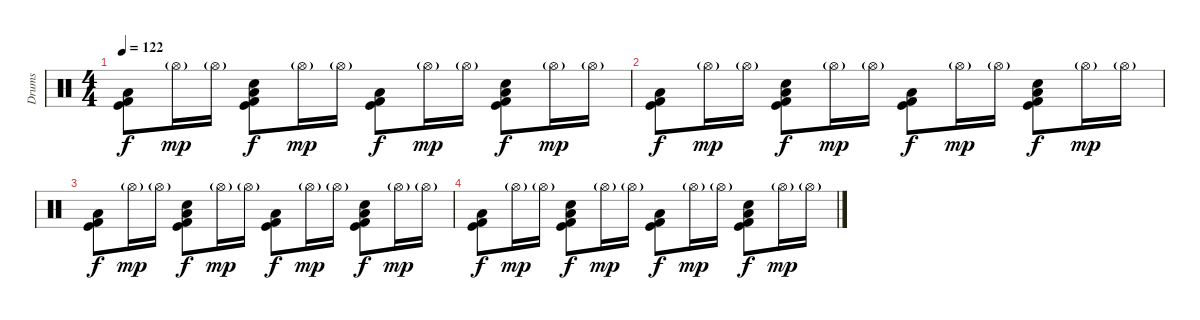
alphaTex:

\track ("Drums" "Drums") {instrument percussion}
\staff {score}
\articulation defaults
\ts (4 4)
\tempo 122
\clef neutral
\ks c
("Kick (hit)" "Kick (hit) 2" "Low Floor Tom (hit)").8{dy f} "Hi-Hat (open)"{g}.16{dy mp} "Hi-Hat (open)"{g}.16 ("Electric Snare (hit)" "Kick (hit)" "Kick (hit) 2" "Low Floor Tom (hit)").8{dy f} "Hi-Hat (open)"{g}.16{dy mp} "Hi-Hat (open)"{g}.16 ("Kick (hit)" "Kick (hit) 2" "Low Floor Tom (hit)").8{dy f} "Hi-Hat (open)"{g}.16{dy mp} "Hi-Hat (open)"{g}.16 ("Electric Snare (hit)" "Kick (hit)" "Kick (hit) 2" "Low Floor Tom (hit)").8{dy f} "Hi-Hat (open)"{g}.16{dy mp} "Hi-Hat (open)"{g}.16 |
("Kick (hit)" "Kick (hit) 2" "Low Floor Tom (hit)").8{dy f} "Hi-Hat (open)"{g}.16{dy mp} "Hi-Hat (open)"{g}.16 ("Electric Snare (hit)" "Kick (hit)" "Kick (hit) 2" "Low Floor Tom (hit)").8{dy f} "Hi-Hat (open)"{g}.16{dy mp} "Hi-Hat (open)"{g}.16 ("Kick (hit)" "Kick (hit) 2" "Low Floor Tom (hit)").8{dy f} "Hi-Hat (open)"{g}.16{dy mp} "Hi-Hat (open)"{g}.16 ("Electric Snare (hit)" "Kick (hit)" "Kick (hit) 2" "Low Floor Tom (hit)").8{dy f} "Hi-Hat (open)"{g}.16{dy mp} "Hi-Hat (open)"{g}.16 |
("Kick (hit)" "Kick (hit) 2" "Low Floor Tom (hit)").8{dy f} "Hi-Hat (open)"{g}.16{dy mp} "Hi-Hat (open)"{g}.16 ("Electric Snare (hit)" "Kick (hit)" "Kick (hit) 2" "Low Floor Tom (hit)").8{dy f} "Hi-Hat (open)"{g}.16{dy mp} "Hi-Hat (open)"{g}.16 ("Kick (hit)" "Kick (hit) 2" "Low Floor Tom (hit)").8{dy f} "Hi-Hat (open)"{g}.16{dy mp} "Hi-Hat (open)"{g}.16 ("Electric Snare (hit)" "Kick (hit)" "Kick (hit) 2" "Low Floor Tom (hit)").8{dy f} "Hi-Hat (open)"{g}.16{dy mp} "Hi-Hat (open)"{g}.16 |
("Kick (hit)" "Kick (hit) 2" "Low Floor Tom (hit)").8{dy f} "Hi-Hat (open)"{g}.16{dy mp} "Hi-Hat (open)"{g}.16 ("Electric Snare (hit)" "Kick (hit)" "Kick (hit) 2" "Low Floor Tom (hit)").8{dy f} "Hi-Hat (open)"{g}.16{dy mp} "Hi-Hat (open)"{g}.16 ("Kick (hit)" "Kick (hit) 2" "Low Floor Tom (hit)").8{dy f} "Hi-Hat (open)"{g}.16{dy mp} "Hi-Hat (open)"{g}.16 ("Electric Snare (hit)" "Kick (hit)" "Kick (hit) 2" "Low Floor Tom (hit)").8{dy f} "Hi-Hat (open)"{g}.16{dy mp} "Hi-Hat (open)"{g}.16
